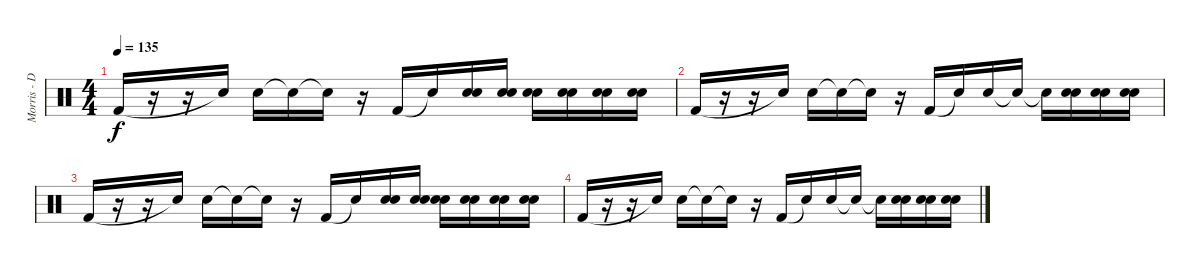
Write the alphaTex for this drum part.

\track ("Morris - Drums" "Morris - D") {instrument percussion}
\staff {score}
\articulation defaults
\ts (4 4)
\tempo 135
\clef neutral
\ks c "Kick (hit) 2".16{dy f}
r.16 r.16 "Snare (hit)"{t}.16 "Snare (hit) 2".16 "Snare (hit)"{t}.16 "Snare (hit)"{t}.16 r.16 "Kick (hit) 2".16 "Snare (hit)"{t}.16 ("Snare (hit) 2" "Snare (hit) 2").16 ("Snare (hit) 2" "Snare (hit) 2").16 ("Snare (hit) 2" "Snare (hit) 2").16 ("Snare (hit) 2" "Snare (hit) 2").16 ("Snare (hit) 2" "Snare (hit) 2").16 ("Snare (hit) 2" "Snare (hit) 2").16 |
"Kick (hit) 2".16 r.16 r.16 "Snare (hit)"{t}.16 "Snare (hit) 2".16 "Snare (hit)"{t}.16 "Snare (hit)"{t}.16 r.16 "Kick (hit) 2".16 "Snare (hit)"{t}.16 "Snare (hit) 2".16 "Snare (hit)"{t}.16 "Snare (hit)"{t}.16 ("Snare (hit) 2" "Snare (hit) 2").16 ("Snare (hit) 2" "Snare (hit) 2").16 ("Snare (hit) 2" "Snare (hit) 2").16 |
"Kick (hit) 2".16 r.16 r.16 "Snare (hit)"{t}.16 "Snare (hit) 2".16 "Snare (hit)"{t}.16 "Snare (hit)"{t}.16 r.16 "Kick (hit) 2".16 "Snare (hit)"{t}.16 ("Snare (hit) 2" "Snare (hit) 2").16 ("Snare (hit) 2" "Snare (hit) 2").16 ("Snare (hit) 2" "Snare (hit) 2").16 ("Snare (hit) 2" "Snare (hit) 2").16 ("Snare (hit) 2" "Snare (hit) 2").16 ("Snare (hit) 2" "Snare (hit) 2").16 |
"Kick (hit) 2".16 r.16 r.16 "Snare (hit)"{t}.16 "Snare (hit) 2".16 "Snare (hit)"{t}.16 "Snare (hit)"{t}.16 r.16 "Kick (hit) 2".16 "Snare (hit)"{t}.16 "Snare (hit) 2".16 "Snare (hit)"{t}.16 "Snare (hit)"{t}.16 ("Snare (hit) 2" "Snare (hit) 2").16 ("Snare (hit) 2" "Snare (hit) 2").16 ("Snare (hit) 2" "Snare (hit) 2").16
